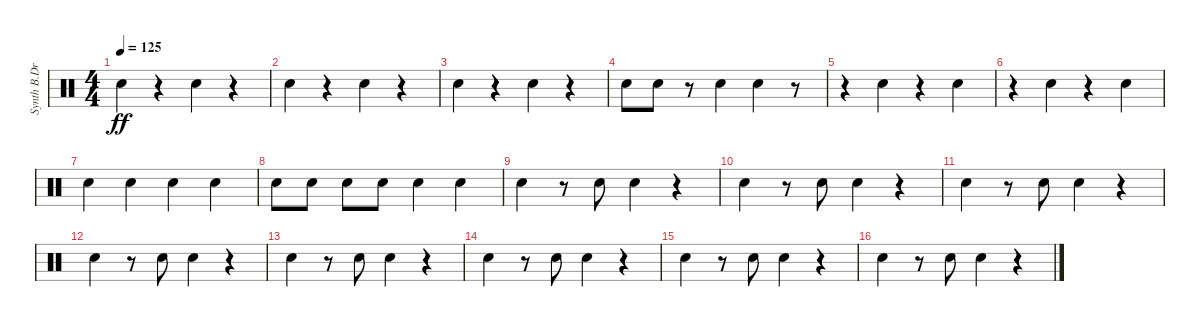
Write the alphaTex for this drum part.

\track ("Synth B.Drum" "Synth B.Dr") {instrument percussion}
\staff {score}
\articulation defaults
\ts (4 4)
\tempo 125
\clef neutral
\ks c "Snare (hit)".4{dy ff}
r.4 "Snare (hit)".4 r.4 |
"Snare (hit)".4 r.4 "Snare (hit)".4 r.4 |
"Snare (hit)".4 r.4 "Snare (hit)".4 r.4 |
"Snare (hit)".8 "Snare (hit)".8 r.8 "Snare (hit)".4 "Snare (hit)".4 r.8 |
r.4 "Snare (hit)".4 r.4 "Snare (hit)".4 |
r.4 "Snare (hit)".4 r.4 "Snare (hit)".4 |
"Snare (hit)".4 "Snare (hit)".4 "Snare (hit)".4 "Snare (hit)".4 |
"Snare (hit)".8 "Snare (hit)".8 "Snare (hit)".8 "Snare (hit)".8 "Snare (hit)".4 "Snare (hit)".4 |
"Snare (hit)".4 r.8 "Snare (hit)".8 "Snare (hit)".4 r.4 |
"Snare (hit)".4 r.8 "Snare (hit)".8 "Snare (hit)".4 r.4 |
"Snare (hit)".4 r.8 "Snare (hit)".8 "Snare (hit)".4 r.4 |
"Snare (hit)".4 r.8 "Snare (hit)".8 "Snare (hit)".4 r.4 |
"Snare (hit)".4 r.8 "Snare (hit)".8 "Snare (hit)".4 r.4 |
"Snare (hit)".4 r.8 "Snare (hit)".8 "Snare (hit)".4 r.4 |
"Snare (hit)".4 r.8 "Snare (hit)".8 "Snare (hit)".4 r.4 |
"Snare (hit)".4 r.8 "Snare (hit)".8 "Snare (hit)".4 r.4
